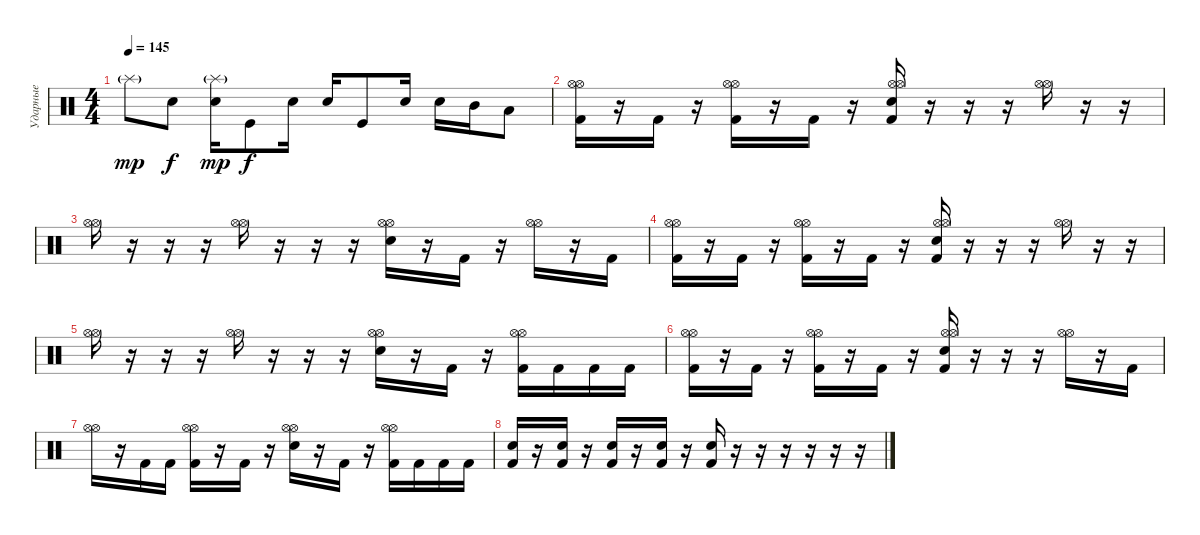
\track ("Ударные" "Ударные") {instrument percussion}
\staff {score}
\articulation defaults
\ts (4 4)
\tempo 145
\clef neutral
\ks c "Splash (hit)"{g}.8{dy mp} "Snare (hit) 2".8{dy f}
("Splash (hit)"{g} "Snare (hit) 2").16{dy mp} "Kick (hit)".8{dy f} "Snare (hit) 2".16 "Snare (hit) 2".16 "Kick (hit)".8 "Snare (hit) 2".16 "Snare (hit) 2".16 "Mid Tom (hit)".16 "Low Tom (hit)".8 |
("Kick (hit) 2" "Hi-Hat (open)" "Hi-Hat (open)").16 r.16 "Kick (hit) 2".16 r.16 ("Kick (hit) 2" "Hi-Hat (open)" "Hi-Hat (open)").16 r.16 "Kick (hit) 2".16 r.16 ("Kick (hit) 2" "Electric Snare (hit)" "Hi-Hat (open)" "Hi-Hat (open)").16 r.16 r.16 r.16 ("Hi-Hat (open)" "Hi-Hat (open)").16 r.16 r.16 |
("Hi-Hat (open)" "Hi-Hat (open)").16 r.16 r.16 r.16 ("Hi-Hat (open)" "Hi-Hat (open)").16 r.16 r.16 r.16 ("Electric Snare (hit)" "Hi-Hat (open)" "Hi-Hat (open)").16 r.16 "Kick (hit) 2".16 r.16 ("Hi-Hat (open)" "Hi-Hat (open)").16 r.16 "Kick (hit) 2".16 |
("Kick (hit) 2" "Hi-Hat (open)" "Hi-Hat (open)").16 r.16 "Kick (hit) 2".16 r.16 ("Kick (hit) 2" "Hi-Hat (open)" "Hi-Hat (open)").16 r.16 "Kick (hit) 2".16 r.16 ("Kick (hit) 2" "Electric Snare (hit)" "Hi-Hat (open)" "Hi-Hat (open)").16 r.16 r.16 r.16 ("Hi-Hat (open)" "Hi-Hat (open)").16 r.16 r.16 |
("Hi-Hat (open)" "Hi-Hat (open)").16 r.16 r.16 r.16 ("Hi-Hat (open)" "Hi-Hat (open)").16 r.16 r.16 r.16 ("Electric Snare (hit)" "Hi-Hat (open)" "Hi-Hat (open)").16 r.16 "Kick (hit) 2".16 r.16 ("Kick (hit) 2" "Hi-Hat (open)" "Hi-Hat (open)").16 "Kick (hit) 2".16 "Kick (hit) 2".16 "Kick (hit) 2".16 |
("Kick (hit) 2" "Hi-Hat (open)" "Hi-Hat (open)").16 r.16 "Kick (hit) 2".16 r.16 ("Kick (hit) 2" "Hi-Hat (open)" "Hi-Hat (open)").16 r.16 "Kick (hit) 2".16 r.16 ("Kick (hit) 2" "Electric Snare (hit)" "Hi-Hat (open)" "Hi-Hat (open)").16 r.16 r.16 r.16 ("Hi-Hat (open)" "Hi-Hat (open)").16 r.16 "Kick (hit) 2".16 |
("Hi-Hat (open)" "Hi-Hat (open)").16 r.16 "Kick (hit) 2".16 "Kick (hit) 2".16 ("Kick (hit) 2" "Hi-Hat (open)" "Hi-Hat (open)").16 r.16 "Kick (hit) 2".16 r.16 ("Electric Snare (hit)" "Hi-Hat (open)" "Hi-Hat (open)").16 r.16 "Kick (hit) 2".16 r.16 ("Kick (hit) 2" "Hi-Hat (open)" "Hi-Hat (open)").16 "Kick (hit) 2".16 "Kick (hit) 2".16 "Kick (hit) 2".16 |
("Kick (hit) 2" "Electric Snare (hit)").16 r.16 ("Kick (hit) 2" "Electric Snare (hit)").16 r.16 ("Kick (hit) 2" "Electric Snare (hit)").16 r.16 ("Kick (hit) 2" "Electric Snare (hit)").16 r.16 ("Kick (hit) 2" "Electric Snare (hit)").16 r.16 r.16 r.16 r.16 r.16 r.16
